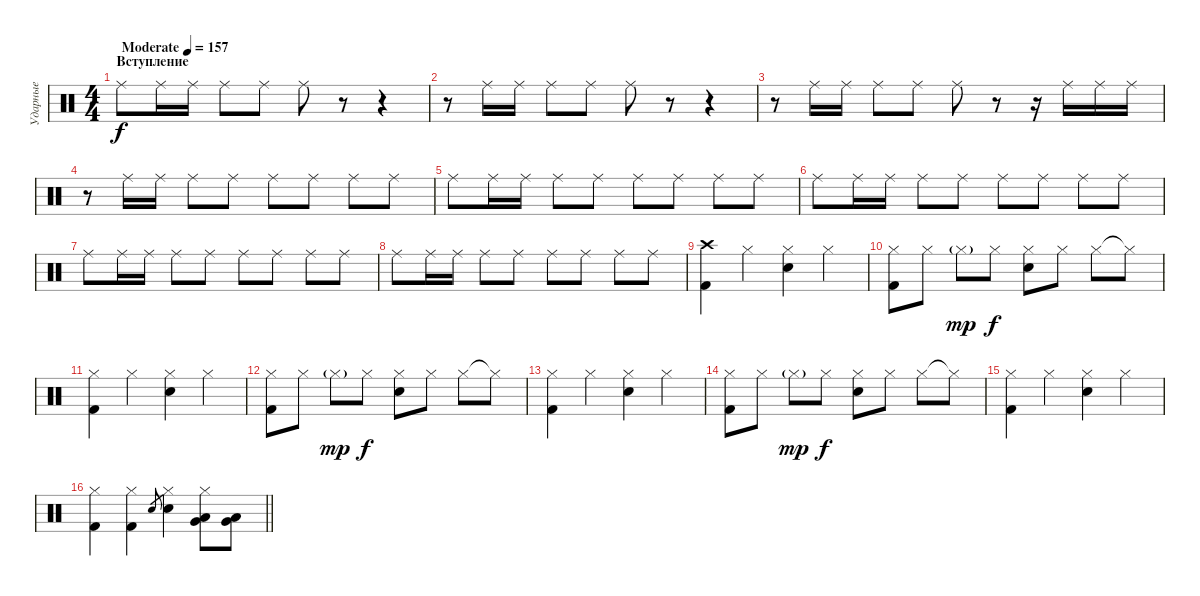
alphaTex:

\track ("Ударные" "Ударные") {instrument percussion}
\staff {score}
\articulation defaults
\ts (4 4)
\section ("" "Вступление")
\tempo (157 "Moderate")
\clef neutral
\ks c "Ride (middle)".8{dy f} "Ride (middle)".16 "Ride (middle)".16 "Ride (middle)".8 "Ride (middle)".8 "Ride (middle)".8
r.8 r.4 |
r.8 "Ride (middle)".16 "Ride (middle)".16 "Ride (middle)".8 "Ride (middle)".8 "Ride (middle)".8 r.8 r.4 |
r.8 "Ride (middle)".16 "Ride (middle)".16 "Ride (middle)".8 "Ride (middle)".8 "Ride (middle)".8 r.8 r.16 "Ride (middle)".16 "Ride (middle)".16 "Ride (middle)".16 |
r.8 "Ride (middle)".16 "Ride (middle)".16 "Ride (middle)".8 "Ride (middle)".8 "Ride (middle)".8 "Ride (middle)".8 "Ride (middle)".8 "Ride (middle)".8 |
"Ride (middle)".8 "Ride (middle)".16 "Ride (middle)".16 "Ride (middle)".8 "Ride (middle)".8 "Ride (middle)".8 "Ride (middle)".8 "Ride (middle)".8 "Ride (middle)".8 |
"Ride (middle)".8 "Ride (middle)".16 "Ride (middle)".16 "Ride (middle)".8 "Ride (middle)".8 "Ride (middle)".8 "Ride (middle)".8 "Ride (middle)".8 "Ride (middle)".8 |
"Ride (middle)".8 "Ride (middle)".16 "Ride (middle)".16 "Ride (middle)".8 "Ride (middle)".8 "Ride (middle)".8 "Ride (middle)".8 "Ride (middle)".8 "Ride (middle)".8 |
"Ride (middle)".8 "Ride (middle)".16 "Ride (middle)".16 "Ride (middle)".8 "Ride (middle)".8 "Ride (middle)".8 "Ride (middle)".8 "Ride (middle)".8 "Ride (middle)".8 |
("Crash high (hit)" "Kick (hit) 2").4 "Hi-Hat (closed)".4 ("Hi-Hat (closed)" "Snare (hit) 2").4 "Hi-Hat (closed)".4 |
("Hi-Hat (closed)" "Kick (hit) 2").8 "Hi-Hat (closed)".8 "Hi-Hat (closed)"{g}.8{dy mp} "Hi-Hat (closed)".8{dy f} ("Hi-Hat (closed)" "Snare (hit) 2").8 "Hi-Hat (closed)".8 "Hi-Hat (closed)".8 "Hi-Hat (closed)"{t}.8 |
("Hi-Hat (closed)" "Kick (hit) 2").4 "Hi-Hat (closed)".4 ("Hi-Hat (closed)" "Snare (hit) 2").4 "Hi-Hat (closed)".4 |
("Hi-Hat (closed)" "Kick (hit) 2").8 "Hi-Hat (closed)".8 "Hi-Hat (closed)"{g}.8{dy mp} "Hi-Hat (closed)".8{dy f} ("Hi-Hat (closed)" "Snare (hit) 2").8 "Hi-Hat (closed)".8 "Hi-Hat (closed)".8 "Hi-Hat (closed)"{t}.8 |
("Hi-Hat (closed)" "Kick (hit) 2").4 "Hi-Hat (closed)".4 ("Hi-Hat (closed)" "Snare (hit) 2").4 "Hi-Hat (closed)".4 |
("Hi-Hat (closed)" "Kick (hit) 2").8 "Hi-Hat (closed)".8 "Hi-Hat (closed)"{g}.8{dy mp} "Hi-Hat (closed)".8{dy f} ("Hi-Hat (closed)" "Snare (hit) 2").8 "Hi-Hat (closed)".8 "Hi-Hat (closed)".8 "Hi-Hat (closed)"{t}.8 |
("Hi-Hat (closed)" "Kick (hit) 2").4 "Hi-Hat (closed)".4 ("Hi-Hat (closed)" "Snare (hit) 2").4 "Hi-Hat (closed)".4 |
\barLineRight lightlight
("Hi-Hat (closed)" "Kick (hit) 2").4 ("Hi-Hat (closed)" "Kick (hit) 2").4 "Snare (hit) 2".8{gr} ("Hi-Hat (closed)" "Snare (hit) 2").4 ("Hi-Hat (closed)" "Very Low Tom (hit)" "Low Tom (hit)").8 ("Low Floor Tom (hit)" "Very Low Tom (hit)").8
